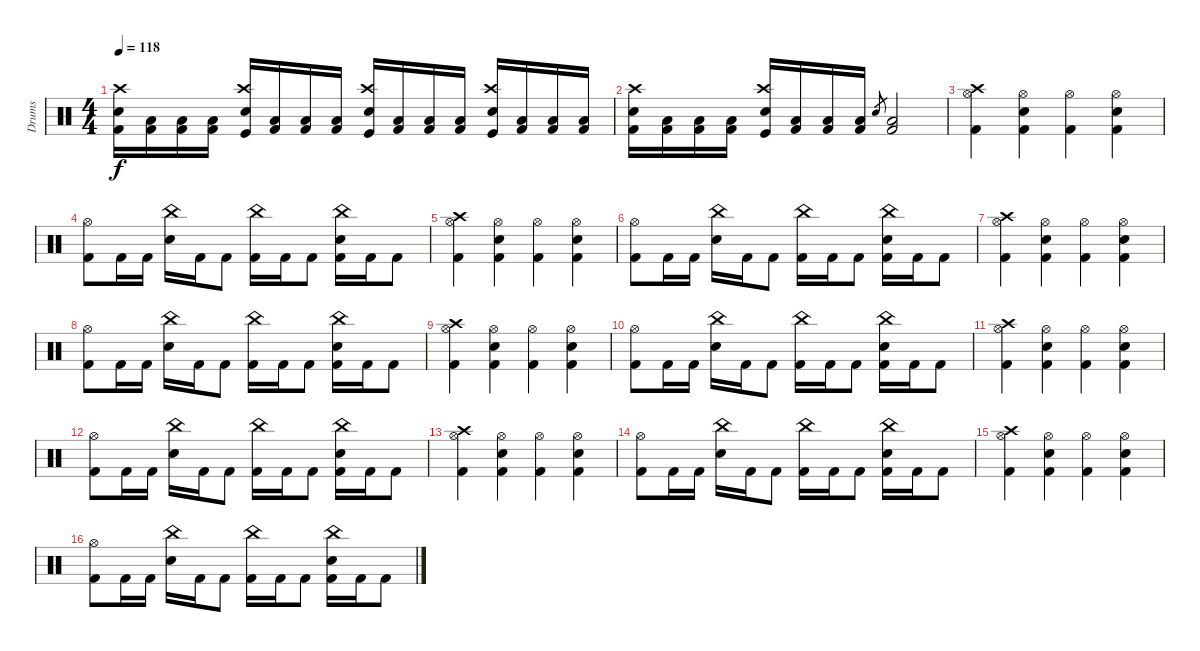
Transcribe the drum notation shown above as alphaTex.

\track ("Drums" "Drums") {instrument percussion}
\staff {score}
\articulation defaults
\ts (4 4)
\tempo 118
\clef neutral
\ks c
("Kick (hit) 2" "Snare (hit) 2" "Crash high (hit)").16{dy f} ("Kick (hit) 2" "Low Floor Tom (hit)").16 ("Kick (hit) 2" "Low Floor Tom (hit)").16 ("Kick (hit) 2" "Low Floor Tom (hit)").16 ("Kick (hit)" "Snare (hit) 2" "Crash high (hit)").16 ("Kick (hit) 2" "Low Floor Tom (hit)").16 ("Kick (hit) 2" "Low Floor Tom (hit)").16 ("Kick (hit) 2" "Low Floor Tom (hit)").16 ("Kick (hit)" "Snare (hit) 2" "Crash high (hit)").16 ("Kick (hit) 2" "Low Floor Tom (hit)").16 ("Kick (hit) 2" "Low Floor Tom (hit)").16 ("Kick (hit) 2" "Low Floor Tom (hit)").16 ("Kick (hit)" "Snare (hit) 2" "Crash high (hit)").16 ("Kick (hit) 2" "Low Floor Tom (hit)").16 ("Kick (hit) 2" "Low Floor Tom (hit)").16 ("Kick (hit) 2" "Low Floor Tom (hit)").16 |
("Kick (hit) 2" "Snare (hit) 2" "Crash high (hit)").16 ("Kick (hit) 2" "Low Floor Tom (hit)").16 ("Kick (hit) 2" "Low Floor Tom (hit)").16 ("Kick (hit) 2" "Low Floor Tom (hit)").16 ("Kick (hit)" "Snare (hit) 2" "Crash high (hit)").16 ("Kick (hit) 2" "Low Floor Tom (hit)").16 ("Kick (hit) 2" "Low Floor Tom (hit)").16 ("Kick (hit) 2" "Low Floor Tom (hit)").16 "Snare (hit) 2".8{gr} ("Kick (hit) 2" "Low Floor Tom (hit)").2 |
("Kick (hit) 2" "Hi-Hat (open)" "Crash high (hit)").4 ("Kick (hit) 2" "Snare (hit) 2" "Hi-Hat (open)").4 ("Kick (hit) 2" "Hi-Hat (open)").4 ("Kick (hit) 2" "Snare (hit) 2" "Hi-Hat (open)").4 |
("Kick (hit) 2" "Hi-Hat (open)").8 "Kick (hit) 2".16 "Kick (hit) 2".16 ("Snare (hit) 2" "China (hit)").16 "Kick (hit) 2".16 "Kick (hit) 2".8 ("Kick (hit) 2" "China (hit)").16 "Kick (hit) 2".16 "Kick (hit) 2".8 ("Kick (hit) 2" "Snare (hit) 2" "China (hit)").16 "Kick (hit) 2".16 "Kick (hit) 2".8 |
("Kick (hit) 2" "Hi-Hat (open)" "Crash high (hit)").4 ("Kick (hit) 2" "Snare (hit) 2" "Hi-Hat (open)").4 ("Kick (hit) 2" "Hi-Hat (open)").4 ("Kick (hit) 2" "Snare (hit) 2" "Hi-Hat (open)").4 |
("Kick (hit) 2" "Hi-Hat (open)").8 "Kick (hit) 2".16 "Kick (hit) 2".16 ("Snare (hit) 2" "China (hit)").16 "Kick (hit) 2".16 "Kick (hit) 2".8 ("Kick (hit) 2" "China (hit)").16 "Kick (hit) 2".16 "Kick (hit) 2".8 ("Kick (hit) 2" "Snare (hit) 2" "China (hit)").16 "Kick (hit) 2".16 "Kick (hit) 2".8 |
("Kick (hit) 2" "Hi-Hat (open)" "Crash high (hit)").4 ("Kick (hit) 2" "Snare (hit) 2" "Hi-Hat (open)").4 ("Kick (hit) 2" "Hi-Hat (open)").4 ("Kick (hit) 2" "Snare (hit) 2" "Hi-Hat (open)").4 |
("Kick (hit) 2" "Hi-Hat (open)").8 "Kick (hit) 2".16 "Kick (hit) 2".16 ("Snare (hit) 2" "China (hit)").16 "Kick (hit) 2".16 "Kick (hit) 2".8 ("Kick (hit) 2" "China (hit)").16 "Kick (hit) 2".16 "Kick (hit) 2".8 ("Kick (hit) 2" "Snare (hit) 2" "China (hit)").16 "Kick (hit) 2".16 "Kick (hit) 2".8 |
("Kick (hit) 2" "Hi-Hat (open)" "Crash high (hit)").4 ("Kick (hit) 2" "Snare (hit) 2" "Hi-Hat (open)").4 ("Kick (hit) 2" "Hi-Hat (open)").4 ("Kick (hit) 2" "Snare (hit) 2" "Hi-Hat (open)").4 |
("Kick (hit) 2" "Hi-Hat (open)").8 "Kick (hit) 2".16 "Kick (hit) 2".16 ("Snare (hit) 2" "China (hit)").16 "Kick (hit) 2".16 "Kick (hit) 2".8 ("Kick (hit) 2" "China (hit)").16 "Kick (hit) 2".16 "Kick (hit) 2".8 ("Kick (hit) 2" "Snare (hit) 2" "China (hit)").16 "Kick (hit) 2".16 "Kick (hit) 2".8 |
("Kick (hit) 2" "Hi-Hat (open)" "Crash high (hit)").4 ("Kick (hit) 2" "Snare (hit) 2" "Hi-Hat (open)").4 ("Kick (hit) 2" "Hi-Hat (open)").4 ("Kick (hit) 2" "Snare (hit) 2" "Hi-Hat (open)").4 |
("Kick (hit) 2" "Hi-Hat (open)").8 "Kick (hit) 2".16 "Kick (hit) 2".16 ("Snare (hit) 2" "China (hit)").16 "Kick (hit) 2".16 "Kick (hit) 2".8 ("Kick (hit) 2" "China (hit)").16 "Kick (hit) 2".16 "Kick (hit) 2".8 ("Kick (hit) 2" "Snare (hit) 2" "China (hit)").16 "Kick (hit) 2".16 "Kick (hit) 2".8 |
("Kick (hit) 2" "Hi-Hat (open)" "Crash high (hit)").4 ("Kick (hit) 2" "Snare (hit) 2" "Hi-Hat (open)").4 ("Kick (hit) 2" "Hi-Hat (open)").4 ("Kick (hit) 2" "Snare (hit) 2" "Hi-Hat (open)").4 |
("Kick (hit) 2" "Hi-Hat (open)").8 "Kick (hit) 2".16 "Kick (hit) 2".16 ("Snare (hit) 2" "China (hit)").16 "Kick (hit) 2".16 "Kick (hit) 2".8 ("Kick (hit) 2" "China (hit)").16 "Kick (hit) 2".16 "Kick (hit) 2".8 ("Kick (hit) 2" "Snare (hit) 2" "China (hit)").16 "Kick (hit) 2".16 "Kick (hit) 2".8 |
("Kick (hit) 2" "Hi-Hat (open)" "Crash high (hit)").4 ("Kick (hit) 2" "Snare (hit) 2" "Hi-Hat (open)").4 ("Kick (hit) 2" "Hi-Hat (open)").4 ("Kick (hit) 2" "Snare (hit) 2" "Hi-Hat (open)").4 |
("Kick (hit) 2" "Hi-Hat (open)").8 "Kick (hit) 2".16 "Kick (hit) 2".16 ("Snare (hit) 2" "China (hit)").16 "Kick (hit) 2".16 "Kick (hit) 2".8 ("Kick (hit) 2" "China (hit)").16 "Kick (hit) 2".16 "Kick (hit) 2".8 ("Kick (hit) 2" "Snare (hit) 2" "China (hit)").16 "Kick (hit) 2".16 "Kick (hit) 2".8
